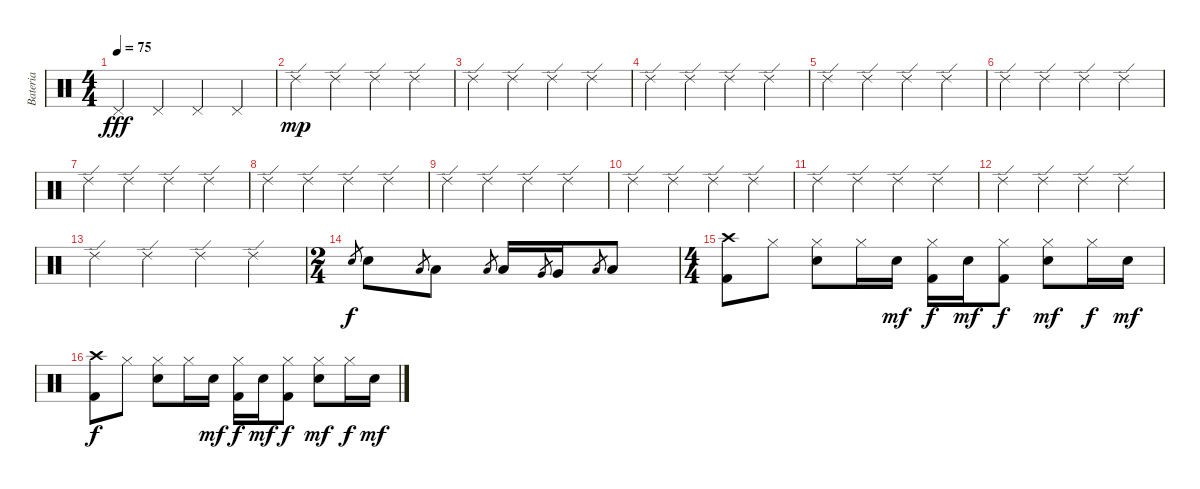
\track ("Bateria" "Bateria") {instrument percussion}
\staff {score}
\articulation defaults
\ts (4 4)
\tempo 75
\clef neutral
\ks c "Pedal Hi-Hat (hit)".4{dy fff} "Pedal Hi-Hat (hit)".4 "Pedal Hi-Hat (hit)".4 "Pedal Hi-Hat (hit)".4
|
"Ride (edge) 2".4{dy mp} "Ride (edge) 2".4 "Ride (edge) 2".4 "Ride (edge) 2".4 |
"Ride (edge) 2".4 "Ride (edge) 2".4 "Ride (edge) 2".4 "Ride (edge) 2".4 |
"Ride (edge) 2".4 "Ride (edge) 2".4 "Ride (edge) 2".4 "Ride (edge) 2".4 |
"Ride (edge) 2".4 "Ride (edge) 2".4 "Ride (edge) 2".4 "Ride (edge) 2".4 |
"Ride (edge) 2".4 "Ride (edge) 2".4 "Ride (edge) 2".4 "Ride (edge) 2".4 |
"Ride (edge) 2".4 "Ride (edge) 2".4 "Ride (edge) 2".4 "Ride (edge) 2".4 |
"Ride (edge) 2".4 "Ride (edge) 2".4 "Ride (edge) 2".4 "Ride (edge) 2".4 |
"Ride (edge) 2".4 "Ride (edge) 2".4 "Ride (edge) 2".4 "Ride (edge) 2".4 |
"Ride (edge) 2".4 "Ride (edge) 2".4 "Ride (edge) 2".4 "Ride (edge) 2".4 |
"Ride (edge) 2".4 "Ride (edge) 2".4 "Ride (edge) 2".4 "Ride (edge) 2".4 |
"Ride (edge) 2".4 "Ride (edge) 2".4 "Ride (edge) 2".4 "Ride (edge) 2".4 |
"Ride (edge) 2".4 "Ride (edge) 2".4 "Ride (edge) 2".4 "Ride (edge) 2".4 |
\ts (2 4)
"Snare (hit) 2".8{gr dy f} "Snare (hit) 2".8 "Low Tom (hit)".8{gr} "Low Tom (hit)".8 "Low Tom (hit)".8{gr} "Low Tom (hit)".16 "Very Low Tom (hit)".8{gr} "Very Low Tom (hit)".16 "Low Floor Tom (hit)".8{gr} "Low Floor Tom (hit)".8 |
\ts (4 4)
("Crash high (hit)" "Kick (hit) 2").8 "Hi-Hat (closed)".8 ("Hi-Hat (closed)" "Snare (hit) 2").8 "Hi-Hat (closed)".16 "Snare (hit) 2".16{dy mf} ("Hi-Hat (closed)" "Kick (hit) 2").16{dy f} "Snare (hit) 2".16{dy mf} ("Hi-Hat (closed)" "Kick (hit) 2").8{dy f} ("Hi-Hat (closed)" "Snare (hit) 2").8{dy mf} "Hi-Hat (closed)".16{dy f} "Snare (hit) 2".16{dy mf} |
("Crash high (hit)" "Kick (hit) 2").8{dy f} "Hi-Hat (closed)".8 ("Hi-Hat (closed)" "Snare (hit) 2").8 "Hi-Hat (closed)".16 "Snare (hit) 2".16{dy mf} ("Hi-Hat (closed)" "Kick (hit) 2").16{dy f} "Snare (hit) 2".16{dy mf} ("Hi-Hat (closed)" "Kick (hit) 2").8{dy f} ("Hi-Hat (closed)" "Snare (hit) 2").8{dy mf} "Hi-Hat (closed)".16{dy f} "Snare (hit) 2".16{dy mf}
